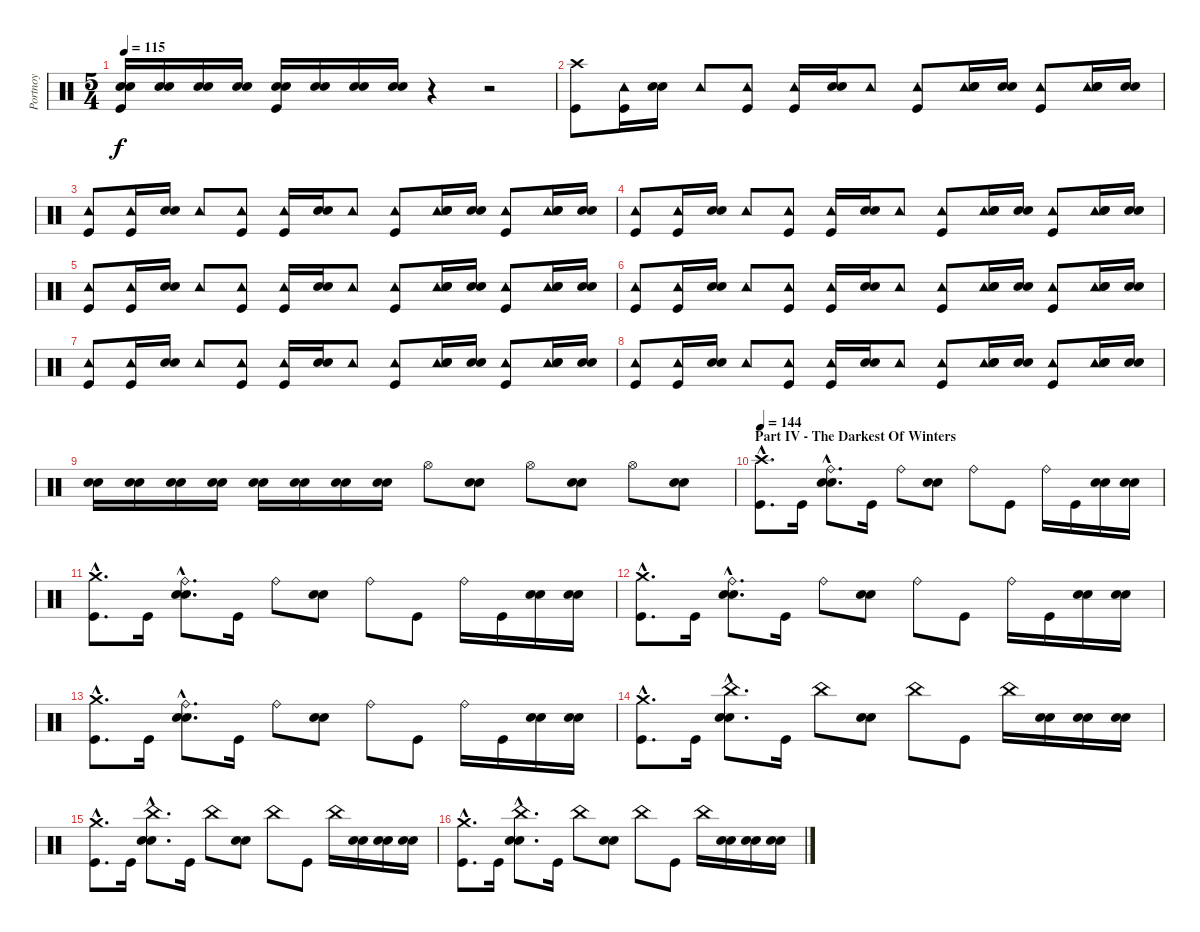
\track ("Portnoy" "Portnoy") {instrument percussion}
\staff {score}
\articulation defaults
\ts (5 4)
\tempo 115
\clef neutral
\ks c
("Electric Snare (hit)" "Snare (hit) 2" "Kick (hit)").16{dy f} ("Electric Snare (hit)" "Snare (hit) 2").16 ("Electric Snare (hit)" "Snare (hit) 2").16 ("Electric Snare (hit)" "Snare (hit) 2").16 ("Electric Snare (hit)" "Snare (hit) 2" "Kick (hit)").16 ("Electric Snare (hit)" "Snare (hit) 2").16 ("Electric Snare (hit)" "Snare (hit) 2").16 ("Electric Snare (hit)" "Snare (hit) 2").16 r.4 r.2 |
("Crash high (hit)" "Kick (hit)").8 ("Tambourine (hit)" "Kick (hit)").16 ("Snare (hit) 2" "Electric Snare (hit)").16 "Tambourine (hit)".8 ("Tambourine (hit)" "Kick (hit)").8 ("Tambourine (hit)" "Kick (hit)").16 ("Snare (hit) 2" "Electric Snare (hit)").16 "Tambourine (hit)".8 ("Tambourine (hit)" "Kick (hit)").8 ("Tambourine (hit)" "Snare (hit) 2" "Electric Snare (hit)").16 ("Snare (hit) 2" "Electric Snare (hit)").16 ("Tambourine (hit)" "Kick (hit)").8 ("Tambourine (hit)" "Snare (hit) 2" "Electric Snare (hit)").16 ("Snare (hit) 2" "Electric Snare (hit)").16 |
("Tambourine (hit)" "Kick (hit)").8 ("Tambourine (hit)" "Kick (hit)").16 ("Snare (hit) 2" "Electric Snare (hit)").16 "Tambourine (hit)".8 ("Tambourine (hit)" "Kick (hit)").8 ("Tambourine (hit)" "Kick (hit)").16 ("Snare (hit) 2" "Electric Snare (hit)").16 "Tambourine (hit)".8 ("Tambourine (hit)" "Kick (hit)").8 ("Tambourine (hit)" "Snare (hit) 2" "Electric Snare (hit)").16 ("Snare (hit) 2" "Electric Snare (hit)").16 ("Tambourine (hit)" "Kick (hit)").8 ("Tambourine (hit)" "Snare (hit) 2" "Electric Snare (hit)").16 ("Snare (hit) 2" "Electric Snare (hit)").16 |
("Tambourine (hit)" "Kick (hit)").8 ("Tambourine (hit)" "Kick (hit)").16 ("Snare (hit) 2" "Electric Snare (hit)").16 "Tambourine (hit)".8 ("Tambourine (hit)" "Kick (hit)").8 ("Tambourine (hit)" "Kick (hit)").16 ("Snare (hit) 2" "Electric Snare (hit)").16 "Tambourine (hit)".8 ("Tambourine (hit)" "Kick (hit)").8 ("Tambourine (hit)" "Snare (hit) 2" "Electric Snare (hit)").16 ("Snare (hit) 2" "Electric Snare (hit)").16 ("Tambourine (hit)" "Kick (hit)").8 ("Tambourine (hit)" "Snare (hit) 2" "Electric Snare (hit)").16 ("Snare (hit) 2" "Electric Snare (hit)").16 |
("Tambourine (hit)" "Kick (hit)").8 ("Tambourine (hit)" "Kick (hit)").16 ("Snare (hit) 2" "Electric Snare (hit)").16 "Tambourine (hit)".8 ("Tambourine (hit)" "Kick (hit)").8 ("Tambourine (hit)" "Kick (hit)").16 ("Snare (hit) 2" "Electric Snare (hit)").16 "Tambourine (hit)".8 ("Tambourine (hit)" "Kick (hit)").8 ("Tambourine (hit)" "Snare (hit) 2" "Electric Snare (hit)").16 ("Snare (hit) 2" "Electric Snare (hit)").16 ("Tambourine (hit)" "Kick (hit)").8 ("Tambourine (hit)" "Snare (hit) 2" "Electric Snare (hit)").16 ("Snare (hit) 2" "Electric Snare (hit)").16 |
("Tambourine (hit)" "Kick (hit)").8 ("Tambourine (hit)" "Kick (hit)").16 ("Snare (hit) 2" "Electric Snare (hit)").16 "Tambourine (hit)".8 ("Tambourine (hit)" "Kick (hit)").8 ("Tambourine (hit)" "Kick (hit)").16 ("Snare (hit) 2" "Electric Snare (hit)").16 "Tambourine (hit)".8 ("Tambourine (hit)" "Kick (hit)").8 ("Tambourine (hit)" "Snare (hit) 2" "Electric Snare (hit)").16 ("Snare (hit) 2" "Electric Snare (hit)").16 ("Tambourine (hit)" "Kick (hit)").8 ("Tambourine (hit)" "Snare (hit) 2" "Electric Snare (hit)").16 ("Snare (hit) 2" "Electric Snare (hit)").16 |
("Tambourine (hit)" "Kick (hit)").8 ("Tambourine (hit)" "Kick (hit)").16 ("Snare (hit) 2" "Electric Snare (hit)").16 "Tambourine (hit)".8 ("Tambourine (hit)" "Kick (hit)").8 ("Tambourine (hit)" "Kick (hit)").16 ("Snare (hit) 2" "Electric Snare (hit)").16 "Tambourine (hit)".8 ("Tambourine (hit)" "Kick (hit)").8 ("Tambourine (hit)" "Snare (hit) 2" "Electric Snare (hit)").16 ("Snare (hit) 2" "Electric Snare (hit)").16 ("Tambourine (hit)" "Kick (hit)").8 ("Tambourine (hit)" "Snare (hit) 2" "Electric Snare (hit)").16 ("Snare (hit) 2" "Electric Snare (hit)").16 |
("Tambourine (hit)" "Kick (hit)").8 ("Tambourine (hit)" "Kick (hit)").16 ("Snare (hit) 2" "Electric Snare (hit)").16 "Tambourine (hit)".8 ("Tambourine (hit)" "Kick (hit)").8 ("Tambourine (hit)" "Kick (hit)").16 ("Snare (hit) 2" "Electric Snare (hit)").16 "Tambourine (hit)".8 ("Tambourine (hit)" "Kick (hit)").8 ("Tambourine (hit)" "Snare (hit) 2" "Electric Snare (hit)").16 ("Snare (hit) 2" "Electric Snare (hit)").16 ("Tambourine (hit)" "Kick (hit)").8 ("Tambourine (hit)" "Snare (hit) 2" "Electric Snare (hit)").16 ("Snare (hit) 2" "Electric Snare (hit)").16 |
("Snare (hit) 2" "Electric Snare (hit)").16 ("Snare (hit) 2" "Electric Snare (hit)").16 ("Snare (hit) 2" "Electric Snare (hit)").16 ("Snare (hit) 2" "Electric Snare (hit)").16 ("Snare (hit) 2" "Electric Snare (hit)").16 ("Snare (hit) 2" "Electric Snare (hit)").16 ("Snare (hit) 2" "Electric Snare (hit)").16 ("Snare (hit) 2" "Electric Snare (hit)").16 "Hi-Hat (open)".8 ("Snare (hit) 2" "Electric Snare (hit)").8 "Hi-Hat (open)".8 ("Snare (hit) 2" "Electric Snare (hit)").8 "Hi-Hat (open)".8 ("Snare (hit) 2" "Electric Snare (hit)").8 |
\section ("" "Part IV - The Darkest Of Winters")
\tempo 144
("Crash high (hit)"{hac} "Kick (hit)"{hac}).8{d} "Kick (hit)".16 ("Ride (bell)"{hac} "Snare (hit) 2"{hac} "Electric Snare (hit)"{hac}).8{d} "Kick (hit)".16 "Ride (bell)".8 ("Snare (hit) 2" "Electric Snare (hit)").8 "Ride (bell)".8 "Kick (hit)".8 "Ride (bell)".16 "Kick (hit)".16 ("Snare (hit) 2" "Electric Snare (hit)").16 ("Snare (hit) 2" "Electric Snare (hit)").16 |
("Crash medium (hit)"{hac} "Kick (hit)"{hac}).8{d} "Kick (hit)".16 ("Ride (bell)"{hac} "Snare (hit) 2"{hac} "Electric Snare (hit)"{hac}).8{d} "Kick (hit)".16 "Ride (bell)".8 ("Snare (hit) 2" "Electric Snare (hit)").8 "Ride (bell)".8 "Kick (hit)".8 "Ride (bell)".16 "Kick (hit)".16 ("Snare (hit) 2" "Electric Snare (hit)").16 ("Snare (hit) 2" "Electric Snare (hit)").16 |
("Crash medium (hit)"{hac} "Kick (hit)"{hac}).8{d} "Kick (hit)".16 ("Ride (bell)"{hac} "Snare (hit) 2"{hac} "Electric Snare (hit)"{hac}).8{d} "Kick (hit)".16 "Ride (bell)".8 ("Snare (hit) 2" "Electric Snare (hit)").8 "Ride (bell)".8 "Kick (hit)".8 "Ride (bell)".16 "Kick (hit)".16 ("Snare (hit) 2" "Electric Snare (hit)").16 ("Snare (hit) 2" "Electric Snare (hit)").16 |
("Crash medium (hit)"{hac} "Kick (hit)"{hac}).8{d} "Kick (hit)".16 ("Ride (bell)"{hac} "Snare (hit) 2"{hac} "Electric Snare (hit)"{hac}).8{d} "Kick (hit)".16 "Ride (bell)".8 ("Snare (hit) 2" "Electric Snare (hit)").8 "Ride (bell)".8 "Kick (hit)".8 "Ride (bell)".16 "Kick (hit)".16 ("Snare (hit) 2" "Electric Snare (hit)").16 ("Snare (hit) 2" "Electric Snare (hit)").16 |
("Crash medium (hit)"{hac} "Kick (hit)"{hac}).8{d} "Kick (hit)".16 ("China (hit)"{hac} "Snare (hit) 2"{hac} "Electric Snare (hit)"{hac}).8{d} "Kick (hit)".16 "China (hit)".8 ("Snare (hit) 2" "Electric Snare (hit)").8 "China (hit)".8 "Kick (hit)".8 "China (hit)".16 ("Snare (hit) 2" "Electric Snare (hit)").16 ("Snare (hit) 2" "Electric Snare (hit)").16 ("Snare (hit) 2" "Electric Snare (hit)").16 |
("Crash medium (hit)"{hac} "Kick (hit)"{hac}).8{d} "Kick (hit)".16 ("China (hit)"{hac} "Snare (hit) 2"{hac} "Electric Snare (hit)"{hac}).8{d} "Kick (hit)".16 "China (hit)".8 ("Snare (hit) 2" "Electric Snare (hit)").8 "China (hit)".8 "Kick (hit)".8 "China (hit)".16 ("Snare (hit) 2" "Electric Snare (hit)").16 ("Snare (hit) 2" "Electric Snare (hit)").16 ("Snare (hit) 2" "Electric Snare (hit)").16 |
("Crash medium (hit)"{hac} "Kick (hit)"{hac}).8{d} "Kick (hit)".16 ("China (hit)"{hac} "Snare (hit) 2"{hac} "Electric Snare (hit)"{hac}).8{d} "Kick (hit)".16 "China (hit)".8 ("Snare (hit) 2" "Electric Snare (hit)").8 "China (hit)".8 "Kick (hit)".8 "China (hit)".16 ("Snare (hit) 2" "Electric Snare (hit)").16 ("Snare (hit) 2" "Electric Snare (hit)").16 ("Snare (hit) 2" "Electric Snare (hit)").16
